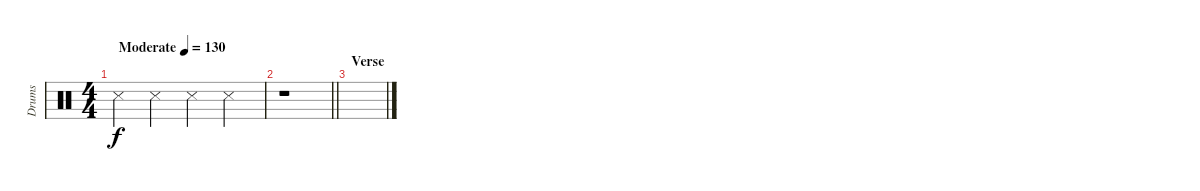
\track ("Drums" "Drums") {instrument percussion}
\staff {score}
\articulation defaults
\ts (4 4)
\tempo (130 "Moderate")
\clef neutral
\ks c "Snare (side stick) 3".4{dy f} "Snare (side stick) 3".4 "Snare (side stick) 3".4 "Snare (side stick) 3".4
|
\barLineRight lightlight
r.1 |
\section ("" "Verse")
